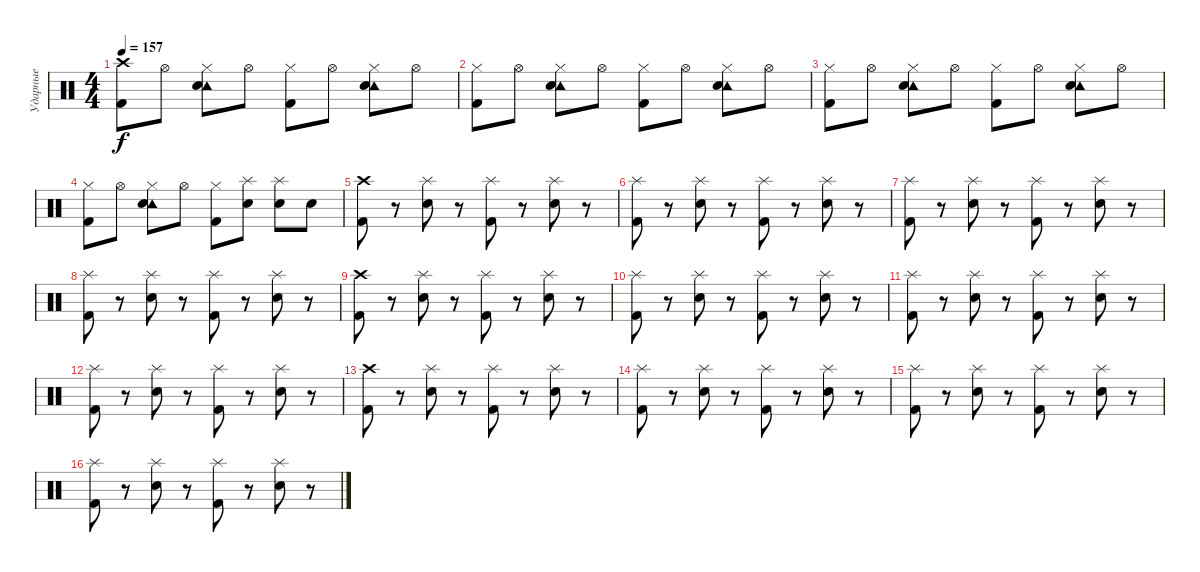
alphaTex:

\track ("Ударные" "Ударные") {instrument percussion}
\staff {score}
\articulation defaults
\ts (4 4)
\tempo 157
\clef neutral
\ks c
("Crash high (hit)" "Kick (hit) 2").8{dy f} "Hi-Hat (open)".8 ("Tambourine (hit)" "Electric Snare (hit)" "Hi-Hat (closed)").8 "Hi-Hat (open)".8 ("Hi-Hat (closed)" "Kick (hit) 2").8 "Hi-Hat (open)".8 ("Tambourine (hit)" "Electric Snare (hit)" "Hi-Hat (closed)").8 "Hi-Hat (open)".8 |
("Hi-Hat (closed)" "Kick (hit) 2").8 "Hi-Hat (open)".8 ("Tambourine (hit)" "Electric Snare (hit)" "Hi-Hat (closed)").8 "Hi-Hat (open)".8 ("Hi-Hat (closed)" "Kick (hit) 2").8 "Hi-Hat (open)".8 ("Tambourine (hit)" "Electric Snare (hit)" "Hi-Hat (closed)").8 "Hi-Hat (open)".8 |
("Hi-Hat (closed)" "Kick (hit) 2").8 "Hi-Hat (open)".8 ("Tambourine (hit)" "Electric Snare (hit)" "Hi-Hat (closed)").8 "Hi-Hat (open)".8 ("Hi-Hat (closed)" "Kick (hit) 2").8 "Hi-Hat (open)".8 ("Tambourine (hit)" "Electric Snare (hit)" "Hi-Hat (closed)").8 "Hi-Hat (open)".8 |
("Hi-Hat (closed)" "Kick (hit) 2").8 "Hi-Hat (open)".8 ("Tambourine (hit)" "Electric Snare (hit)" "Hi-Hat (closed)").8 "Hi-Hat (open)".8 ("Hi-Hat (closed)" "Kick (hit) 2").8 ("Splash (hit)" "Electric Snare (hit)").8 ("Splash (hit)" "Electric Snare (hit)").8 "Electric Snare (hit)".8 |
("Crash high (hit)" "Kick (hit) 2").8 r.8 ("Splash (hit)" "Electric Snare (hit)").8 r.8 ("Splash (hit)" "Kick (hit) 2").8 r.8 ("Splash (hit)" "Electric Snare (hit)").8 r.8 |
("Splash (hit)" "Kick (hit) 2").8 r.8 ("Splash (hit)" "Electric Snare (hit)").8 r.8 ("Splash (hit)" "Kick (hit) 2").8 r.8 ("Splash (hit)" "Electric Snare (hit)").8 r.8 |
("Splash (hit)" "Kick (hit) 2").8 r.8 ("Splash (hit)" "Electric Snare (hit)").8 r.8 ("Splash (hit)" "Kick (hit) 2").8 r.8 ("Splash (hit)" "Electric Snare (hit)").8 r.8 |
("Splash (hit)" "Kick (hit) 2").8 r.8 ("Splash (hit)" "Electric Snare (hit)").8 r.8 ("Splash (hit)" "Kick (hit) 2").8 r.8 ("Splash (hit)" "Electric Snare (hit)").8 r.8 |
("Crash high (hit)" "Kick (hit) 2").8 r.8 ("Splash (hit)" "Electric Snare (hit)").8 r.8 ("Splash (hit)" "Kick (hit) 2").8 r.8 ("Splash (hit)" "Electric Snare (hit)").8 r.8 |
("Splash (hit)" "Kick (hit) 2").8 r.8 ("Splash (hit)" "Electric Snare (hit)").8 r.8 ("Splash (hit)" "Kick (hit) 2").8 r.8 ("Splash (hit)" "Electric Snare (hit)").8 r.8 |
("Splash (hit)" "Kick (hit) 2").8 r.8 ("Splash (hit)" "Electric Snare (hit)").8 r.8 ("Splash (hit)" "Kick (hit) 2").8 r.8 ("Splash (hit)" "Electric Snare (hit)").8 r.8 |
("Splash (hit)" "Kick (hit) 2").8 r.8 ("Splash (hit)" "Electric Snare (hit)").8 r.8 ("Splash (hit)" "Kick (hit) 2").8 r.8 ("Splash (hit)" "Electric Snare (hit)").8 r.8 |
("Crash high (hit)" "Kick (hit) 2").8 r.8 ("Splash (hit)" "Electric Snare (hit)").8 r.8 ("Splash (hit)" "Kick (hit) 2").8 r.8 ("Splash (hit)" "Electric Snare (hit)").8 r.8 |
("Splash (hit)" "Kick (hit) 2").8 r.8 ("Splash (hit)" "Electric Snare (hit)").8 r.8 ("Splash (hit)" "Kick (hit) 2").8 r.8 ("Splash (hit)" "Electric Snare (hit)").8 r.8 |
("Splash (hit)" "Kick (hit) 2").8 r.8 ("Splash (hit)" "Electric Snare (hit)").8 r.8 ("Splash (hit)" "Kick (hit) 2").8 r.8 ("Splash (hit)" "Electric Snare (hit)").8 r.8 |
("Splash (hit)" "Kick (hit) 2").8 r.8 ("Splash (hit)" "Electric Snare (hit)").8 r.8 ("Splash (hit)" "Kick (hit) 2").8 r.8 ("Splash (hit)" "Electric Snare (hit)").8 r.8
